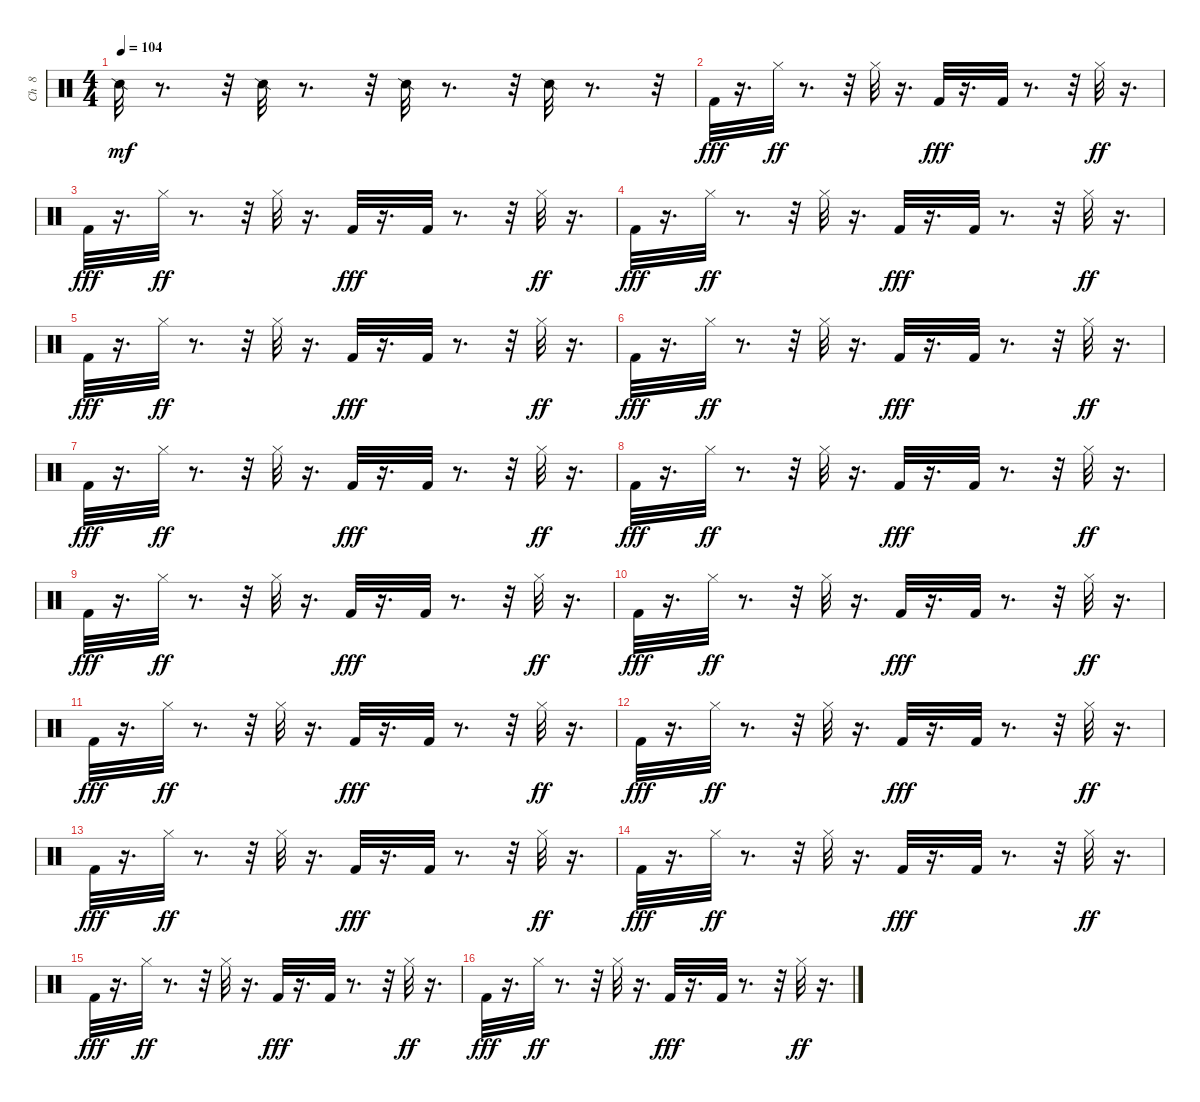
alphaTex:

\track ("Ch  8   " "Ch  8   ") {instrument percussion}
\staff {score}
\articulation defaults
\ts (4 4)
\tempo 104
\clef neutral
\ks c "Snare (side stick) 2".32{dy mf}
r.8{d} r.32 "Snare (side stick) 2".32 r.8{d} r.32 "Snare (side stick) 2".32 r.8{d} r.32 "Snare (side stick) 2".32 r.8{d} r.32 |
"Kick (hit) 2".32{dy fff} r.16{d} "Hi-Hat (closed)".32{dy ff} r.8{d} r.32 "Hi-Hat (closed)".32 r.16{d} "Kick (hit) 2".32{dy fff} r.16{d} "Kick (hit) 2".32 r.8{d} r.32 "Hi-Hat (closed)".32{dy ff} r.16{d} |
"Kick (hit) 2".32{dy fff} r.16{d} "Hi-Hat (closed)".32{dy ff} r.8{d} r.32 "Hi-Hat (closed)".32 r.16{d} "Kick (hit) 2".32{dy fff} r.16{d} "Kick (hit) 2".32 r.8{d} r.32 "Hi-Hat (closed)".32{dy ff} r.16{d} |
"Kick (hit) 2".32{dy fff} r.16{d} "Hi-Hat (closed)".32{dy ff} r.8{d} r.32 "Hi-Hat (closed)".32 r.16{d} "Kick (hit) 2".32{dy fff} r.16{d} "Kick (hit) 2".32 r.8{d} r.32 "Hi-Hat (closed)".32{dy ff} r.16{d} |
"Kick (hit) 2".32{dy fff} r.16{d} "Hi-Hat (closed)".32{dy ff} r.8{d} r.32 "Hi-Hat (closed)".32 r.16{d} "Kick (hit) 2".32{dy fff} r.16{d} "Kick (hit) 2".32 r.8{d} r.32 "Hi-Hat (closed)".32{dy ff} r.16{d} |
"Kick (hit) 2".32{dy fff} r.16{d} "Hi-Hat (closed)".32{dy ff} r.8{d} r.32 "Hi-Hat (closed)".32 r.16{d} "Kick (hit) 2".32{dy fff} r.16{d} "Kick (hit) 2".32 r.8{d} r.32 "Hi-Hat (closed)".32{dy ff} r.16{d} |
"Kick (hit) 2".32{dy fff} r.16{d} "Hi-Hat (closed)".32{dy ff} r.8{d} r.32 "Hi-Hat (closed)".32 r.16{d} "Kick (hit) 2".32{dy fff} r.16{d} "Kick (hit) 2".32 r.8{d} r.32 "Hi-Hat (closed)".32{dy ff} r.16{d} |
"Kick (hit) 2".32{dy fff} r.16{d} "Hi-Hat (closed)".32{dy ff} r.8{d} r.32 "Hi-Hat (closed)".32 r.16{d} "Kick (hit) 2".32{dy fff} r.16{d} "Kick (hit) 2".32 r.8{d} r.32 "Hi-Hat (closed)".32{dy ff} r.16{d} |
"Kick (hit) 2".32{dy fff} r.16{d} "Hi-Hat (closed)".32{dy ff} r.8{d} r.32 "Hi-Hat (closed)".32 r.16{d} "Kick (hit) 2".32{dy fff} r.16{d} "Kick (hit) 2".32 r.8{d} r.32 "Hi-Hat (closed)".32{dy ff} r.16{d} |
"Kick (hit) 2".32{dy fff} r.16{d} "Hi-Hat (closed)".32{dy ff} r.8{d} r.32 "Hi-Hat (closed)".32 r.16{d} "Kick (hit) 2".32{dy fff} r.16{d} "Kick (hit) 2".32 r.8{d} r.32 "Hi-Hat (closed)".32{dy ff} r.16{d} |
"Kick (hit) 2".32{dy fff} r.16{d} "Hi-Hat (closed)".32{dy ff} r.8{d} r.32 "Hi-Hat (closed)".32 r.16{d} "Kick (hit) 2".32{dy fff} r.16{d} "Kick (hit) 2".32 r.8{d} r.32 "Hi-Hat (closed)".32{dy ff} r.16{d} |
"Kick (hit) 2".32{dy fff} r.16{d} "Hi-Hat (closed)".32{dy ff} r.8{d} r.32 "Hi-Hat (closed)".32 r.16{d} "Kick (hit) 2".32{dy fff} r.16{d} "Kick (hit) 2".32 r.8{d} r.32 "Hi-Hat (closed)".32{dy ff} r.16{d} |
"Kick (hit) 2".32{dy fff} r.16{d} "Hi-Hat (closed)".32{dy ff} r.8{d} r.32 "Hi-Hat (closed)".32 r.16{d} "Kick (hit) 2".32{dy fff} r.16{d} "Kick (hit) 2".32 r.8{d} r.32 "Hi-Hat (closed)".32{dy ff} r.16{d} |
"Kick (hit) 2".32{dy fff} r.16{d} "Hi-Hat (closed)".32{dy ff} r.8{d} r.32 "Hi-Hat (closed)".32 r.16{d} "Kick (hit) 2".32{dy fff} r.16{d} "Kick (hit) 2".32 r.8{d} r.32 "Hi-Hat (closed)".32{dy ff} r.16{d} |
"Kick (hit) 2".32{dy fff} r.16{d} "Hi-Hat (closed)".32{dy ff} r.8{d} r.32 "Hi-Hat (closed)".32 r.16{d} "Kick (hit) 2".32{dy fff} r.16{d} "Kick (hit) 2".32 r.8{d} r.32 "Hi-Hat (closed)".32{dy ff} r.16{d} |
"Kick (hit) 2".32{dy fff} r.16{d} "Hi-Hat (closed)".32{dy ff} r.8{d} r.32 "Hi-Hat (closed)".32 r.16{d} "Kick (hit) 2".32{dy fff} r.16{d} "Kick (hit) 2".32 r.8{d} r.32 "Hi-Hat (closed)".32{dy ff} r.16{d}
